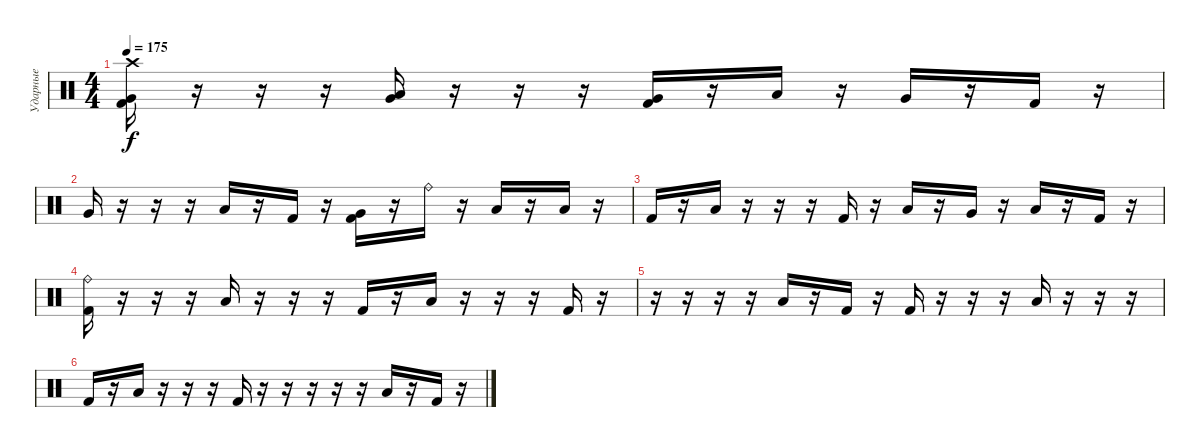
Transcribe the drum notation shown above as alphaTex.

\track ("Ударные" "Ударные") {instrument percussion}
\staff {score}
\articulation defaults
\ts (4 4)
\tempo 175
\clef neutral
\ks c
("Crash high (hit)" "Very Low Tom (hit)" "Kick (hit) 2").16{dy f} r.16 r.16 r.16 ("Very Low Tom (hit)" "Low Floor Tom (hit)").16 r.16 r.16 r.16 ("Very Low Tom (hit)" "Kick (hit) 2").16 r.16 "Low Floor Tom (hit)".16 r.16 "Very Low Tom (hit)".16 r.16 "Kick (hit) 2".16 r.16 |
"Very Low Tom (hit)".16 r.16 r.16 r.16 "Low Floor Tom (hit)".16 r.16 "Kick (hit) 2".16 r.16 ("Very Low Tom (hit)" "Kick (hit) 2").16 r.16 "Ride (bell)".16 r.16 "Low Floor Tom (hit)".16 r.16 "Low Tom (hit)".16 r.16 |
"Kick (hit) 2".16 r.16 "Low Floor Tom (hit)".16 r.16 r.16 r.16 "Kick (hit) 2".16 r.16 "Low Tom (hit)".16 r.16 "Very Low Tom (hit)".16 r.16 "Low Floor Tom (hit)".16 r.16 "Kick (hit) 2".16 r.16 |
("Ride (bell)" "Kick (hit) 2").16 r.16 r.16 r.16 "Low Floor Tom (hit)".16 r.16 r.16 r.16 "Kick (hit) 2".16 r.16 "Low Floor Tom (hit)".16 r.16 r.16 r.16 "Kick (hit) 2".16 r.16 |
r.16 r.16 r.16 r.16 "Low Floor Tom (hit)".16 r.16 "Kick (hit) 2".16 r.16 "Kick (hit) 2".16 r.16 r.16 r.16 "Low Floor Tom (hit)".16 r.16 r.16 r.16 |
"Kick (hit) 2".16 r.16 "Low Floor Tom (hit)".16 r.16 r.16 r.16 "Kick (hit) 2".16 r.16 r.16 r.16 r.16 r.16 "Low Floor Tom (hit)".16 r.16 "Kick (hit) 2".16 r.16
